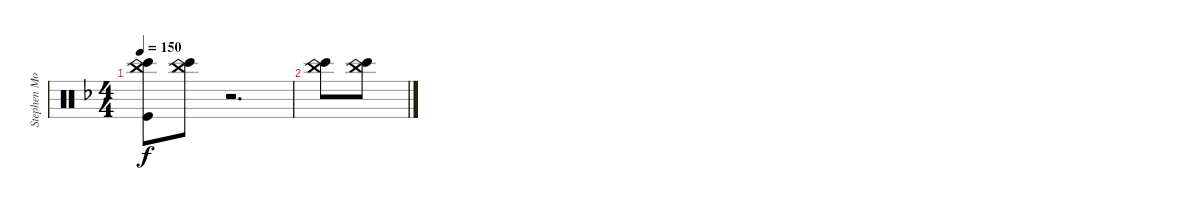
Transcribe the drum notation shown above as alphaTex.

\track ("Stephen Morris (Drums)" "Stephen Mo") {instrument percussion}
\staff {score}
\articulation defaults
\ts (4 4)
\tempo 150
\clef neutral
\ks f
("China (hit)" "Bongo High (hit)" "Kick (hit)").8{dy f} ("China (hit)" "Bongo High (hit)").8 r.2{d} |
("China (hit)" "Bongo High (hit)").8 ("China (hit)" "Bongo High (hit)").8
